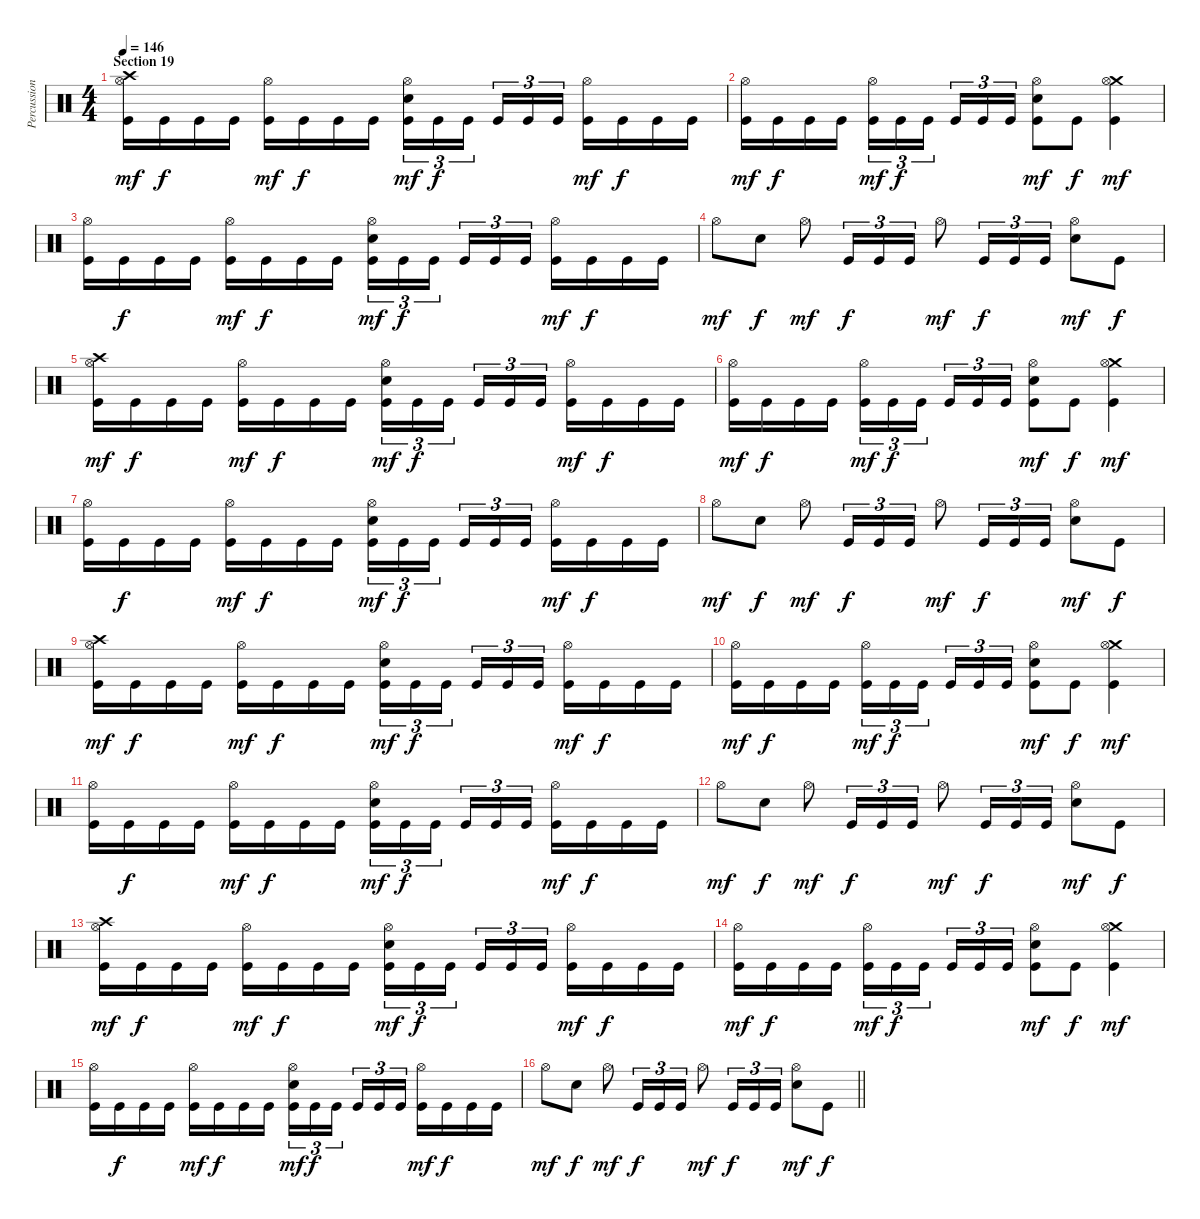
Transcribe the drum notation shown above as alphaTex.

\track ("Percussion" "Percussion") {instrument percussion}
\staff {score}
\articulation defaults
\ts (4 4)
\section ("" "Section 19")
\tempo 146
\clef neutral
\ks c
("Crash high (hit)" "Hi-Hat (open)" "Kick (hit)").16{dy mf} "Kick (hit)".16{dy f} "Kick (hit)".16 "Kick (hit)".16 ("Hi-Hat (open)" "Kick (hit)").16{dy mf} "Kick (hit)".16{dy f} "Kick (hit)".16 "Kick (hit)".16 ("Hi-Hat (open)" "Electric Snare (hit)" "Kick (hit)").16{tu (3 2) dy mf} "Kick (hit)".16{tu (3 2) dy f} "Kick (hit)".16{tu (3 2) beam splitsecondary} "Kick (hit)".16{tu (3 2)} "Kick (hit)".16{tu (3 2)} "Kick (hit)".16{tu (3 2)} ("Hi-Hat (open)" "Kick (hit)").16{dy mf} "Kick (hit)".16{dy f} "Kick (hit)".16 "Kick (hit)".16 |
("Hi-Hat (open)" "Kick (hit)").16{dy mf} "Kick (hit)".16{dy f} "Kick (hit)".16 "Kick (hit)".16 ("Hi-Hat (open)" "Kick (hit)").16{tu (3 2) dy mf} "Kick (hit)".16{tu (3 2) dy f} "Kick (hit)".16{tu (3 2) beam splitsecondary} "Kick (hit)".16{tu (3 2)} "Kick (hit)".16{tu (3 2)} "Kick (hit)".16{tu (3 2)} ("Hi-Hat (open)" "Electric Snare (hit)" "Kick (hit)").8{dy mf} "Kick (hit)".8{dy f} ("Crash medium (hit)" "Hi-Hat (open)" "Kick (hit)").4{dy mf} |
("Hi-Hat (open)" "Kick (hit)").16 "Kick (hit)".16{dy f} "Kick (hit)".16 "Kick (hit)".16 ("Hi-Hat (open)" "Kick (hit)").16{dy mf} "Kick (hit)".16{dy f} "Kick (hit)".16 "Kick (hit)".16 ("Hi-Hat (open)" "Electric Snare (hit)" "Kick (hit)").16{tu (3 2) dy mf} "Kick (hit)".16{tu (3 2) dy f} "Kick (hit)".16{tu (3 2) beam splitsecondary} "Kick (hit)".16{tu (3 2)} "Kick (hit)".16{tu (3 2)} "Kick (hit)".16{tu (3 2)} ("Hi-Hat (open)" "Kick (hit)").16{dy mf} "Kick (hit)".16{dy f} "Kick (hit)".16 "Kick (hit)".16 |
"Hi-Hat (open)".8{dy mf} "Electric Snare (hit)".8{dy f} "Hi-Hat (open)".8{dy mf} "Kick (hit)".16{tu (3 2) dy f} "Kick (hit)".16{tu (3 2)} "Kick (hit)".16{tu (3 2)} "Hi-Hat (open)".8{dy mf} "Kick (hit)".16{tu (3 2) dy f} "Kick (hit)".16{tu (3 2)} "Kick (hit)".16{tu (3 2)} ("Hi-Hat (open)" "Electric Snare (hit)").8{dy mf} "Kick (hit)".8{dy f} |
("Crash high (hit)" "Hi-Hat (open)" "Kick (hit)").16{dy mf} "Kick (hit)".16{dy f} "Kick (hit)".16 "Kick (hit)".16 ("Hi-Hat (open)" "Kick (hit)").16{dy mf} "Kick (hit)".16{dy f} "Kick (hit)".16 "Kick (hit)".16 ("Hi-Hat (open)" "Electric Snare (hit)" "Kick (hit)").16{tu (3 2) dy mf} "Kick (hit)".16{tu (3 2) dy f} "Kick (hit)".16{tu (3 2) beam splitsecondary} "Kick (hit)".16{tu (3 2)} "Kick (hit)".16{tu (3 2)} "Kick (hit)".16{tu (3 2)} ("Hi-Hat (open)" "Kick (hit)").16{dy mf} "Kick (hit)".16{dy f} "Kick (hit)".16 "Kick (hit)".16 |
("Hi-Hat (open)" "Kick (hit)").16{dy mf} "Kick (hit)".16{dy f} "Kick (hit)".16 "Kick (hit)".16 ("Hi-Hat (open)" "Kick (hit)").16{tu (3 2) dy mf} "Kick (hit)".16{tu (3 2) dy f} "Kick (hit)".16{tu (3 2) beam splitsecondary} "Kick (hit)".16{tu (3 2)} "Kick (hit)".16{tu (3 2)} "Kick (hit)".16{tu (3 2)} ("Hi-Hat (open)" "Electric Snare (hit)" "Kick (hit)").8{dy mf} "Kick (hit)".8{dy f} ("Crash medium (hit)" "Hi-Hat (open)" "Kick (hit)").4{dy mf} |
("Hi-Hat (open)" "Kick (hit)").16 "Kick (hit)".16{dy f} "Kick (hit)".16 "Kick (hit)".16 ("Hi-Hat (open)" "Kick (hit)").16{dy mf} "Kick (hit)".16{dy f} "Kick (hit)".16 "Kick (hit)".16 ("Hi-Hat (open)" "Electric Snare (hit)" "Kick (hit)").16{tu (3 2) dy mf} "Kick (hit)".16{tu (3 2) dy f} "Kick (hit)".16{tu (3 2) beam splitsecondary} "Kick (hit)".16{tu (3 2)} "Kick (hit)".16{tu (3 2)} "Kick (hit)".16{tu (3 2)} ("Hi-Hat (open)" "Kick (hit)").16{dy mf} "Kick (hit)".16{dy f} "Kick (hit)".16 "Kick (hit)".16 |
"Hi-Hat (open)".8{dy mf} "Electric Snare (hit)".8{dy f} "Hi-Hat (open)".8{dy mf} "Kick (hit)".16{tu (3 2) dy f} "Kick (hit)".16{tu (3 2)} "Kick (hit)".16{tu (3 2)} "Hi-Hat (open)".8{dy mf} "Kick (hit)".16{tu (3 2) dy f} "Kick (hit)".16{tu (3 2)} "Kick (hit)".16{tu (3 2)} ("Hi-Hat (open)" "Electric Snare (hit)").8{dy mf} "Kick (hit)".8{dy f} |
("Crash high (hit)" "Hi-Hat (open)" "Kick (hit)").16{dy mf} "Kick (hit)".16{dy f} "Kick (hit)".16 "Kick (hit)".16 ("Hi-Hat (open)" "Kick (hit)").16{dy mf} "Kick (hit)".16{dy f} "Kick (hit)".16 "Kick (hit)".16 ("Hi-Hat (open)" "Electric Snare (hit)" "Kick (hit)").16{tu (3 2) dy mf} "Kick (hit)".16{tu (3 2) dy f} "Kick (hit)".16{tu (3 2) beam splitsecondary} "Kick (hit)".16{tu (3 2)} "Kick (hit)".16{tu (3 2)} "Kick (hit)".16{tu (3 2)} ("Hi-Hat (open)" "Kick (hit)").16{dy mf} "Kick (hit)".16{dy f} "Kick (hit)".16 "Kick (hit)".16 |
("Hi-Hat (open)" "Kick (hit)").16{dy mf} "Kick (hit)".16{dy f} "Kick (hit)".16 "Kick (hit)".16 ("Hi-Hat (open)" "Kick (hit)").16{tu (3 2) dy mf} "Kick (hit)".16{tu (3 2) dy f} "Kick (hit)".16{tu (3 2) beam splitsecondary} "Kick (hit)".16{tu (3 2)} "Kick (hit)".16{tu (3 2)} "Kick (hit)".16{tu (3 2)} ("Hi-Hat (open)" "Electric Snare (hit)" "Kick (hit)").8{dy mf} "Kick (hit)".8{dy f} ("Crash medium (hit)" "Hi-Hat (open)" "Kick (hit)").4{dy mf} |
("Hi-Hat (open)" "Kick (hit)").16 "Kick (hit)".16{dy f} "Kick (hit)".16 "Kick (hit)".16 ("Hi-Hat (open)" "Kick (hit)").16{dy mf} "Kick (hit)".16{dy f} "Kick (hit)".16 "Kick (hit)".16 ("Hi-Hat (open)" "Electric Snare (hit)" "Kick (hit)").16{tu (3 2) dy mf} "Kick (hit)".16{tu (3 2) dy f} "Kick (hit)".16{tu (3 2) beam splitsecondary} "Kick (hit)".16{tu (3 2)} "Kick (hit)".16{tu (3 2)} "Kick (hit)".16{tu (3 2)} ("Hi-Hat (open)" "Kick (hit)").16{dy mf} "Kick (hit)".16{dy f} "Kick (hit)".16 "Kick (hit)".16 |
"Hi-Hat (open)".8{dy mf} "Electric Snare (hit)".8{dy f} "Hi-Hat (open)".8{dy mf} "Kick (hit)".16{tu (3 2) dy f} "Kick (hit)".16{tu (3 2)} "Kick (hit)".16{tu (3 2)} "Hi-Hat (open)".8{dy mf} "Kick (hit)".16{tu (3 2) dy f} "Kick (hit)".16{tu (3 2)} "Kick (hit)".16{tu (3 2)} ("Hi-Hat (open)" "Electric Snare (hit)").8{dy mf} "Kick (hit)".8{dy f} |
("Crash high (hit)" "Hi-Hat (open)" "Kick (hit)").16{dy mf} "Kick (hit)".16{dy f} "Kick (hit)".16 "Kick (hit)".16 ("Hi-Hat (open)" "Kick (hit)").16{dy mf} "Kick (hit)".16{dy f} "Kick (hit)".16 "Kick (hit)".16 ("Hi-Hat (open)" "Electric Snare (hit)" "Kick (hit)").16{tu (3 2) dy mf} "Kick (hit)".16{tu (3 2) dy f} "Kick (hit)".16{tu (3 2) beam splitsecondary} "Kick (hit)".16{tu (3 2)} "Kick (hit)".16{tu (3 2)} "Kick (hit)".16{tu (3 2)} ("Hi-Hat (open)" "Kick (hit)").16{dy mf} "Kick (hit)".16{dy f} "Kick (hit)".16 "Kick (hit)".16 |
("Hi-Hat (open)" "Kick (hit)").16{dy mf} "Kick (hit)".16{dy f} "Kick (hit)".16 "Kick (hit)".16 ("Hi-Hat (open)" "Kick (hit)").16{tu (3 2) dy mf} "Kick (hit)".16{tu (3 2) dy f} "Kick (hit)".16{tu (3 2) beam splitsecondary} "Kick (hit)".16{tu (3 2)} "Kick (hit)".16{tu (3 2)} "Kick (hit)".16{tu (3 2)} ("Hi-Hat (open)" "Electric Snare (hit)" "Kick (hit)").8{dy mf} "Kick (hit)".8{dy f} ("Crash medium (hit)" "Hi-Hat (open)" "Kick (hit)").4{dy mf} |
("Hi-Hat (open)" "Kick (hit)").16 "Kick (hit)".16{dy f} "Kick (hit)".16 "Kick (hit)".16 ("Hi-Hat (open)" "Kick (hit)").16{dy mf} "Kick (hit)".16{dy f} "Kick (hit)".16 "Kick (hit)".16 ("Hi-Hat (open)" "Electric Snare (hit)" "Kick (hit)").16{tu (3 2) dy mf} "Kick (hit)".16{tu (3 2) dy f} "Kick (hit)".16{tu (3 2) beam splitsecondary} "Kick (hit)".16{tu (3 2)} "Kick (hit)".16{tu (3 2)} "Kick (hit)".16{tu (3 2)} ("Hi-Hat (open)" "Kick (hit)").16{dy mf} "Kick (hit)".16{dy f} "Kick (hit)".16 "Kick (hit)".16 |
\barLineRight lightlight "Hi-Hat (open)".8{dy mf} "Electric Snare (hit)".8{dy f} "Hi-Hat (open)".8{dy mf} "Kick (hit)".16{tu (3 2) dy f} "Kick (hit)".16{tu (3 2)} "Kick (hit)".16{tu (3 2)} "Hi-Hat (open)".8{dy mf} "Kick (hit)".16{tu (3 2) dy f} "Kick (hit)".16{tu (3 2)} "Kick (hit)".16{tu (3 2)}
("Hi-Hat (open)" "Electric Snare (hit)").8{dy mf} "Kick (hit)".8{dy f}
